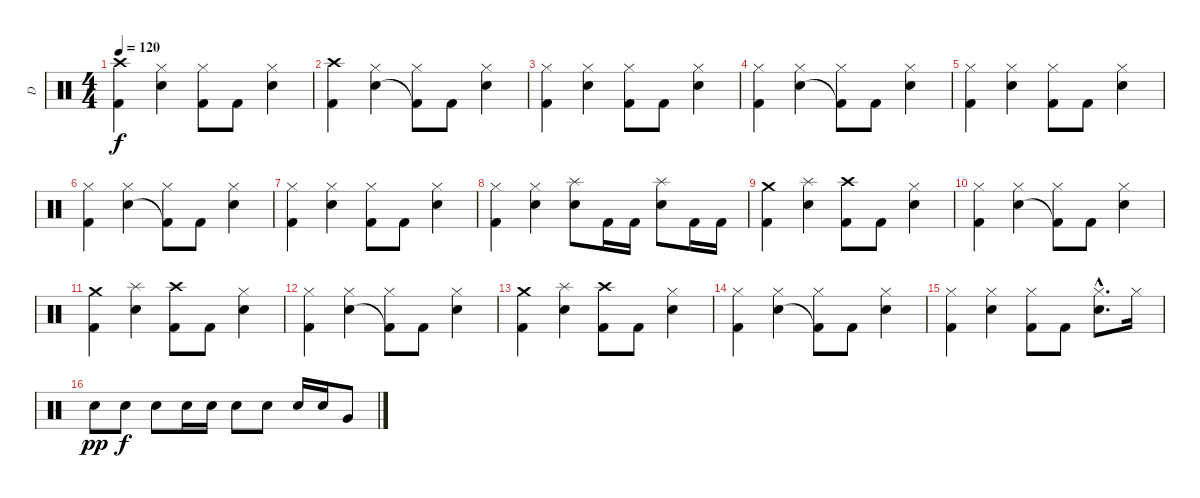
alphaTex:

\track ("D" "D") {instrument percussion}
\staff {score}
\articulation defaults
\ts (4 4)
\tempo 120
\clef neutral
\ks c
("Crash high (hit)" "Kick (hit) 2").4{dy f} ("Hi-Hat (closed)" "Snare (hit) 2").4 ("Hi-Hat (closed)" "Kick (hit) 2").8 "Kick (hit) 2".8 ("Hi-Hat (closed)" "Snare (hit) 2").4 |
("Crash high (hit)" "Kick (hit) 2").4 ("Hi-Hat (closed)" "Snare (hit) 2").4 ("Hi-Hat (closed)" "Kick (hit) 2"{t}).8 "Kick (hit) 2".8 ("Hi-Hat (closed)" "Snare (hit) 2").4 |
("Hi-Hat (closed)" "Kick (hit) 2").4 ("Hi-Hat (closed)" "Snare (hit) 2").4 ("Hi-Hat (closed)" "Kick (hit) 2").8 "Kick (hit) 2".8 ("Hi-Hat (closed)" "Snare (hit) 2").4 |
("Hi-Hat (closed)" "Kick (hit) 2").4 ("Hi-Hat (closed)" "Snare (hit) 2").4 ("Hi-Hat (closed)" "Kick (hit) 2"{t}).8 "Kick (hit) 2".8 ("Hi-Hat (closed)" "Snare (hit) 2").4 |
("Hi-Hat (closed)" "Kick (hit) 2").4 ("Hi-Hat (closed)" "Snare (hit) 2").4 ("Hi-Hat (closed)" "Kick (hit) 2").8 "Kick (hit) 2".8 ("Hi-Hat (closed)" "Snare (hit) 2").4 |
("Hi-Hat (closed)" "Kick (hit) 2").4 ("Hi-Hat (closed)" "Snare (hit) 2").4 ("Hi-Hat (closed)" "Kick (hit) 2"{t}).8 "Kick (hit) 2".8 ("Hi-Hat (closed)" "Snare (hit) 2").4 |
("Hi-Hat (closed)" "Kick (hit) 2").4 ("Hi-Hat (closed)" "Snare (hit) 2").4 ("Hi-Hat (closed)" "Kick (hit) 2").8 "Kick (hit) 2".8 ("Hi-Hat (closed)" "Snare (hit) 2").4 |
("Hi-Hat (closed)" "Kick (hit) 2").4 ("Hi-Hat (closed)" "Snare (hit) 2").4 ("Splash (hit)" "Snare (hit) 2").8 "Kick (hit) 2".16 "Kick (hit) 2".16 ("Splash (hit)" "Snare (hit) 2").8 "Kick (hit) 2".16 "Kick (hit) 2".16 |
("Crash medium (hit)" "Kick (hit) 2").4 ("Splash (hit)" "Snare (hit) 2").4 ("Crash high (hit)" "Kick (hit) 2").8 "Kick (hit) 2".8 ("Hi-Hat (closed)" "Snare (hit) 2").4 |
("Hi-Hat (closed)" "Kick (hit) 2").4 ("Hi-Hat (closed)" "Snare (hit) 2").4 ("Hi-Hat (closed)" "Kick (hit) 2"{t}).8 "Kick (hit) 2".8 ("Hi-Hat (closed)" "Snare (hit) 2").4 |
("Crash medium (hit)" "Kick (hit) 2").4 ("Splash (hit)" "Snare (hit) 2").4 ("Crash high (hit)" "Kick (hit) 2").8 "Kick (hit) 2".8 ("Hi-Hat (closed)" "Snare (hit) 2").4 |
("Hi-Hat (closed)" "Kick (hit) 2").4 ("Hi-Hat (closed)" "Snare (hit) 2").4 ("Hi-Hat (closed)" "Kick (hit) 2"{t}).8 "Kick (hit) 2".8 ("Hi-Hat (closed)" "Snare (hit) 2").4 |
("Crash medium (hit)" "Kick (hit) 2").4 ("Splash (hit)" "Snare (hit) 2").4 ("Crash high (hit)" "Kick (hit) 2").8 "Kick (hit) 2".8 ("Hi-Hat (closed)" "Snare (hit) 2").4 |
("Hi-Hat (closed)" "Kick (hit) 2").4 ("Hi-Hat (closed)" "Snare (hit) 2").4 ("Hi-Hat (closed)" "Kick (hit) 2"{t}).8 "Kick (hit) 2".8 ("Hi-Hat (closed)" "Snare (hit) 2").4 |
("Hi-Hat (closed)" "Kick (hit) 2").4 ("Hi-Hat (closed)" "Snare (hit) 2").4 ("Hi-Hat (closed)" "Kick (hit) 2").8 "Kick (hit) 2".8 ("Hi-Hat (closed)"{hac} "Snare (hit) 2"{hac}).8{d} "Hi-Hat (closed)".16 |
"Snare (hit) 2".8{dy pp volume 16} "Snare (hit) 2".8{dy f} "Snare (hit) 2".8 "Snare (hit) 2".16{volume 11} "Snare (hit) 2".16 "Snare (hit) 2".8{volume 12} "Snare (hit) 2".8{volume 13} "Snare (hit) 2".16{volume 14} "Snare (hit) 2".16 "Very Low Tom (hit)".8
